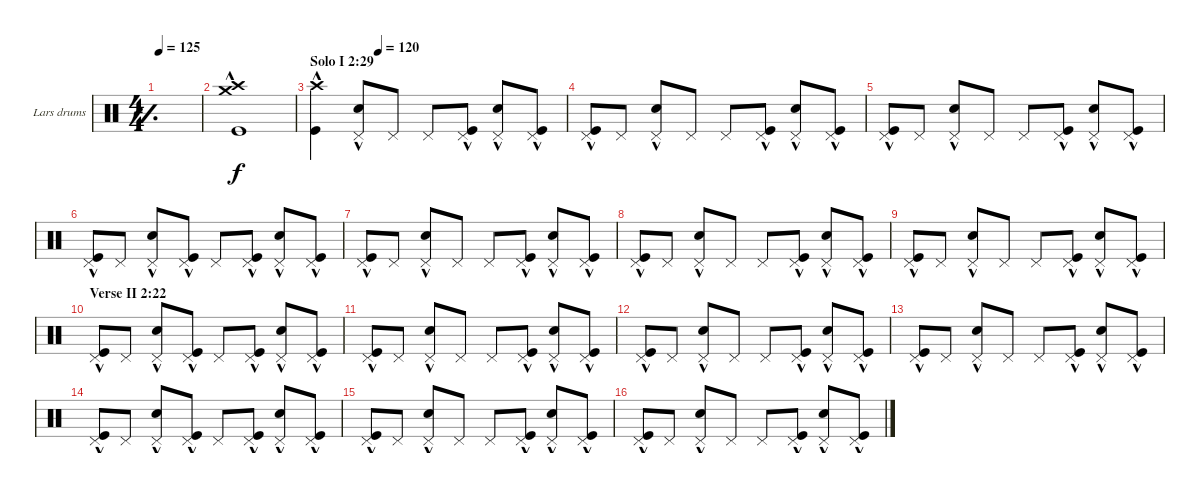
\defaultSystemsLayout 4
\bracketExtendMode groupsimilarinstruments
\firstSystemTrackNameOrientation horizontal
\otherSystemsTrackNameOrientation horizontal
\track ("Lars drums" "Lars drums") {instrument percussion}
\staff {score}
\articulation defaults
\ts (4 4)
\tempo 125
\clef neutral
\simile simple
\ks c
|
("Crash high (hit)"{hac} "Crash medium (hit)"{hac} "Kick (hit)"{hac}).1 |
\section ("" "Solo I 2:29")
\tempo (120 0.25)
("Crash high (hit)"{hac} "Kick (hit)"{hac}).4 ("Snare (hit) 2"{hac} "Pedal Hi-Hat (hit)").8 "Pedal Hi-Hat (hit)".8 "Pedal Hi-Hat (hit)".8 ("Pedal Hi-Hat (hit)" "Kick (hit)"{hac}).8 ("Pedal Hi-Hat (hit)" "Snare (hit) 2"{hac}).8 ("Kick (hit)"{hac} "Pedal Hi-Hat (hit)").8 |
("Kick (hit)"{hac} "Pedal Hi-Hat (hit)").8 "Pedal Hi-Hat (hit)".8 ("Pedal Hi-Hat (hit)" "Snare (hit) 2"{hac}).8 "Pedal Hi-Hat (hit)".8 "Pedal Hi-Hat (hit)".8 ("Pedal Hi-Hat (hit)" "Kick (hit)"{hac}).8 ("Pedal Hi-Hat (hit)" "Snare (hit) 2"{hac}).8 ("Kick (hit)"{hac} "Pedal Hi-Hat (hit)").8 |
("Kick (hit)"{hac} "Pedal Hi-Hat (hit)").8 "Pedal Hi-Hat (hit)".8 ("Pedal Hi-Hat (hit)" "Snare (hit) 2"{hac}).8 "Pedal Hi-Hat (hit)".8 "Pedal Hi-Hat (hit)".8 ("Pedal Hi-Hat (hit)" "Kick (hit)"{hac}).8 ("Pedal Hi-Hat (hit)" "Snare (hit) 2"{hac}).8 ("Pedal Hi-Hat (hit)" "Kick (hit)"{hac}).8 |
("Kick (hit)"{hac} "Pedal Hi-Hat (hit)").8 "Pedal Hi-Hat (hit)".8 ("Pedal Hi-Hat (hit)" "Snare (hit) 2"{hac}).8 ("Pedal Hi-Hat (hit)" "Kick (hit)"{hac}).8 "Pedal Hi-Hat (hit)".8 ("Pedal Hi-Hat (hit)" "Kick (hit)"{hac}).8 ("Pedal Hi-Hat (hit)" "Snare (hit) 2"{hac}).8 ("Pedal Hi-Hat (hit)" "Kick (hit)"{hac}).8 |
("Kick (hit)"{hac} "Pedal Hi-Hat (hit)").8 "Pedal Hi-Hat (hit)".8 ("Pedal Hi-Hat (hit)" "Snare (hit) 2"{hac}).8 "Pedal Hi-Hat (hit)".8 "Pedal Hi-Hat (hit)".8 ("Pedal Hi-Hat (hit)" "Kick (hit)"{hac}).8 ("Pedal Hi-Hat (hit)" "Snare (hit) 2"{hac}).8 ("Pedal Hi-Hat (hit)" "Kick (hit)"{hac}).8 |
("Kick (hit)"{hac} "Pedal Hi-Hat (hit)").8 "Pedal Hi-Hat (hit)".8 ("Pedal Hi-Hat (hit)" "Snare (hit) 2"{hac}).8 "Pedal Hi-Hat (hit)".8 "Pedal Hi-Hat (hit)".8 ("Pedal Hi-Hat (hit)" "Kick (hit)"{hac}).8 ("Pedal Hi-Hat (hit)" "Snare (hit) 2"{hac}).8 ("Kick (hit)"{hac} "Pedal Hi-Hat (hit)").8 |
("Kick (hit)"{hac} "Pedal Hi-Hat (hit)").8 "Pedal Hi-Hat (hit)".8 ("Pedal Hi-Hat (hit)" "Snare (hit) 2"{hac}).8 "Pedal Hi-Hat (hit)".8 "Pedal Hi-Hat (hit)".8 ("Pedal Hi-Hat (hit)" "Kick (hit)"{hac}).8 ("Pedal Hi-Hat (hit)" "Snare (hit) 2"{hac}).8 ("Pedal Hi-Hat (hit)" "Kick (hit)"{hac}).8 |
\section ("" "Verse II 2:22")
("Kick (hit)"{hac} "Pedal Hi-Hat (hit)").8 "Pedal Hi-Hat (hit)".8 ("Pedal Hi-Hat (hit)" "Snare (hit) 2"{hac}).8 ("Pedal Hi-Hat (hit)" "Kick (hit)"{hac}).8 "Pedal Hi-Hat (hit)".8 ("Pedal Hi-Hat (hit)" "Kick (hit)"{hac}).8 ("Pedal Hi-Hat (hit)" "Snare (hit) 2"{hac}).8 ("Pedal Hi-Hat (hit)" "Kick (hit)"{hac}).8 |
("Kick (hit)"{hac} "Pedal Hi-Hat (hit)").8 "Pedal Hi-Hat (hit)".8 ("Pedal Hi-Hat (hit)" "Snare (hit) 2"{hac}).8 "Pedal Hi-Hat (hit)".8 "Pedal Hi-Hat (hit)".8 ("Pedal Hi-Hat (hit)" "Kick (hit)"{hac}).8 ("Pedal Hi-Hat (hit)" "Snare (hit) 2"{hac}).8 ("Pedal Hi-Hat (hit)" "Kick (hit)"{hac}).8 |
("Kick (hit)"{hac} "Pedal Hi-Hat (hit)").8 "Pedal Hi-Hat (hit)".8 ("Pedal Hi-Hat (hit)" "Snare (hit) 2"{hac}).8 "Pedal Hi-Hat (hit)".8 "Pedal Hi-Hat (hit)".8 ("Pedal Hi-Hat (hit)" "Kick (hit)"{hac}).8 ("Pedal Hi-Hat (hit)" "Snare (hit) 2"{hac}).8 ("Kick (hit)"{hac} "Pedal Hi-Hat (hit)").8 |
("Kick (hit)"{hac} "Pedal Hi-Hat (hit)").8 "Pedal Hi-Hat (hit)".8 ("Pedal Hi-Hat (hit)" "Snare (hit) 2"{hac}).8 "Pedal Hi-Hat (hit)".8 "Pedal Hi-Hat (hit)".8 ("Pedal Hi-Hat (hit)" "Kick (hit)"{hac}).8 ("Pedal Hi-Hat (hit)" "Snare (hit) 2"{hac}).8 ("Pedal Hi-Hat (hit)" "Kick (hit)"{hac}).8 |
("Kick (hit)"{hac} "Pedal Hi-Hat (hit)").8 "Pedal Hi-Hat (hit)".8 ("Pedal Hi-Hat (hit)" "Snare (hit) 2"{hac}).8 ("Pedal Hi-Hat (hit)" "Kick (hit)"{hac}).8 "Pedal Hi-Hat (hit)".8 ("Pedal Hi-Hat (hit)" "Kick (hit)"{hac}).8 ("Pedal Hi-Hat (hit)" "Snare (hit) 2"{hac}).8 ("Pedal Hi-Hat (hit)" "Kick (hit)"{hac}).8 |
("Kick (hit)"{hac} "Pedal Hi-Hat (hit)").8 "Pedal Hi-Hat (hit)".8 ("Pedal Hi-Hat (hit)" "Snare (hit) 2"{hac}).8 "Pedal Hi-Hat (hit)".8 "Pedal Hi-Hat (hit)".8 ("Pedal Hi-Hat (hit)" "Kick (hit)"{hac}).8 ("Pedal Hi-Hat (hit)" "Snare (hit) 2"{hac}).8 ("Kick (hit)"{hac} "Pedal Hi-Hat (hit)").8 |
("Kick (hit)"{hac} "Pedal Hi-Hat (hit)").8 "Pedal Hi-Hat (hit)".8 ("Pedal Hi-Hat (hit)" "Snare (hit) 2"{hac}).8 "Pedal Hi-Hat (hit)".8 "Pedal Hi-Hat (hit)".8 ("Pedal Hi-Hat (hit)" "Kick (hit)"{hac}).8 ("Pedal Hi-Hat (hit)" "Snare (hit) 2"{hac}).8 ("Pedal Hi-Hat (hit)" "Kick (hit)"{hac}).8
